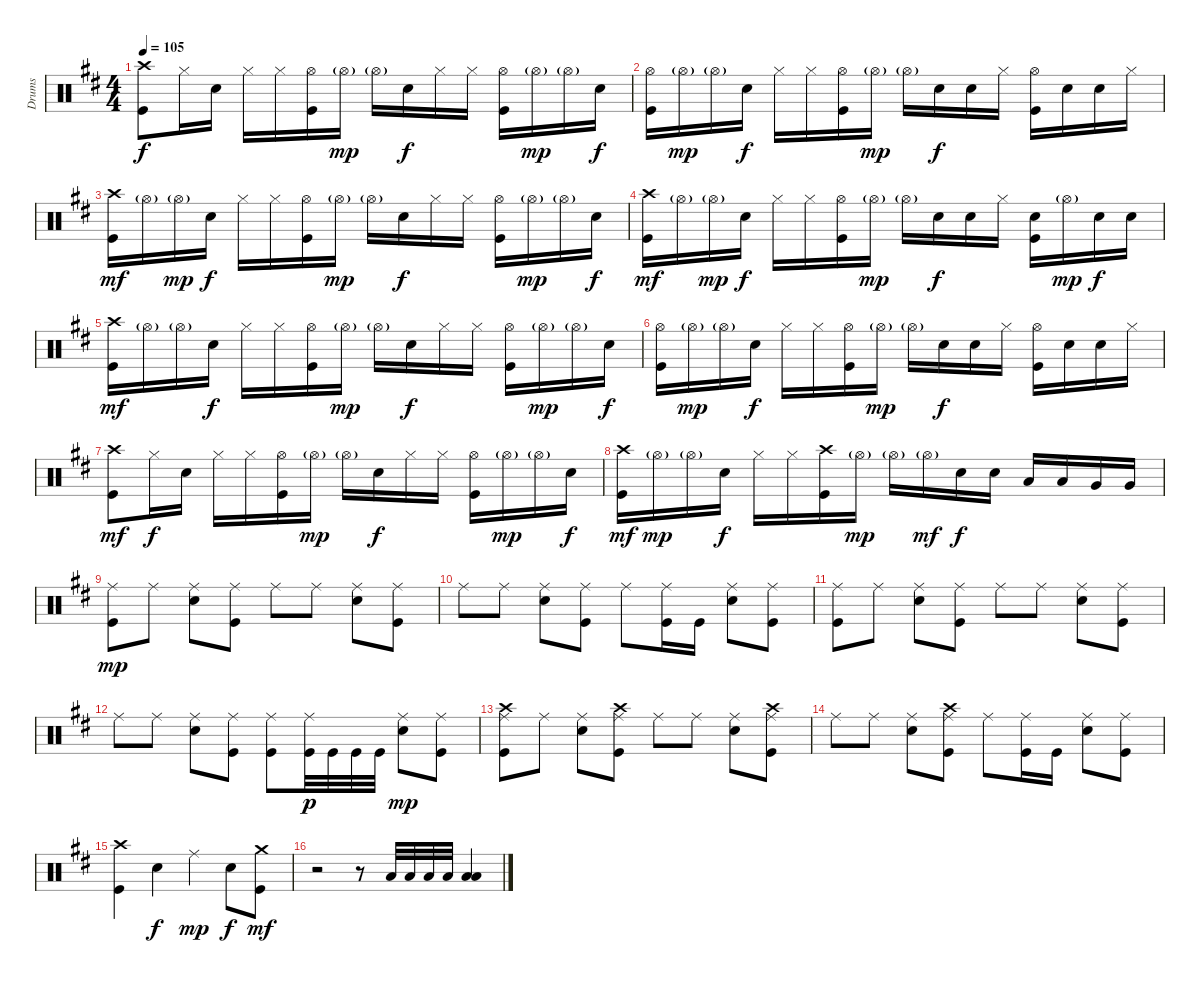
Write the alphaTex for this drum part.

\track ("Drums" "Drums") {instrument percussion}
\staff {score}
\articulation defaults
\ts (4 4)
\tempo 105
\clef neutral
\ks d
("Crash high (hit)" "Kick (hit)").8{dy f} "Hi-Hat (closed)".16 "Electric Snare (hit)".16 "Hi-Hat (closed)".16 "Hi-Hat (closed)".16 ("Hi-Hat (open)" "Kick (hit)").16 "Hi-Hat (open)"{g}.16{dy mp} "Hi-Hat (open)"{g}.16 "Electric Snare (hit)".16{dy f} "Hi-Hat (closed)".16 "Hi-Hat (closed)".16 ("Hi-Hat (open)" "Kick (hit)").16 "Hi-Hat (open)"{g}.16{dy mp} "Hi-Hat (open)"{g}.16 "Electric Snare (hit)".16{dy f} |
("Hi-Hat (open)" "Kick (hit)").16 "Hi-Hat (open)"{g}.16{dy mp} "Hi-Hat (open)"{g}.16 "Electric Snare (hit)".16{dy f} "Hi-Hat (closed)".16 "Hi-Hat (closed)".16 ("Hi-Hat (open)" "Kick (hit)").16 "Hi-Hat (open)"{g}.16{dy mp} "Hi-Hat (open)"{g}.16 "Electric Snare (hit)".16{dy f} "Electric Snare (hit)".16 "Hi-Hat (closed)".16 ("Hi-Hat (open)" "Kick (hit)").16 "Electric Snare (hit)".16 "Electric Snare (hit)".16 "Hi-Hat (closed)".16 |
("Crash high (hit)" "Kick (hit)").16{dy mf} "Hi-Hat (open)"{g}.16 "Hi-Hat (open)"{g}.16{dy mp} "Electric Snare (hit)".16{dy f} "Hi-Hat (closed)".16 "Hi-Hat (closed)".16 ("Hi-Hat (open)" "Kick (hit)").16 "Hi-Hat (open)"{g}.16{dy mp} "Hi-Hat (open)"{g}.16 "Electric Snare (hit)".16{dy f} "Hi-Hat (closed)".16 "Hi-Hat (closed)".16 ("Hi-Hat (open)" "Kick (hit)").16 "Hi-Hat (open)"{g}.16{dy mp} "Hi-Hat (open)"{g}.16 "Electric Snare (hit)".16{dy f} |
("Crash high (hit)" "Kick (hit)").16{dy mf} "Hi-Hat (open)"{g}.16 "Hi-Hat (open)"{g}.16{dy mp} "Electric Snare (hit)".16{dy f} "Hi-Hat (closed)".16 "Hi-Hat (closed)".16 ("Hi-Hat (open)" "Kick (hit)").16 "Hi-Hat (open)"{g}.16{dy mp} "Hi-Hat (open)"{g}.16 "Electric Snare (hit)".16{dy f} "Electric Snare (hit)".16 "Hi-Hat (closed)".16 ("Electric Snare (hit)" "Kick (hit)").16 "Hi-Hat (open)"{g}.16{dy mp} "Electric Snare (hit)".16{dy f} "Electric Snare (hit)".16 |
("Crash high (hit)" "Kick (hit)").16{dy mf} "Hi-Hat (open)"{g}.16 "Hi-Hat (open)"{g}.16 "Electric Snare (hit)".16{dy f} "Hi-Hat (closed)".16 "Hi-Hat (closed)".16 ("Hi-Hat (open)" "Kick (hit)").16 "Hi-Hat (open)"{g}.16{dy mp} "Hi-Hat (open)"{g}.16 "Electric Snare (hit)".16{dy f} "Hi-Hat (closed)".16 "Hi-Hat (closed)".16 ("Hi-Hat (open)" "Kick (hit)").16 "Hi-Hat (open)"{g}.16{dy mp} "Hi-Hat (open)"{g}.16 "Electric Snare (hit)".16{dy f} |
("Hi-Hat (open)" "Kick (hit)").16 "Hi-Hat (open)"{g}.16{dy mp} "Hi-Hat (open)"{g}.16 "Electric Snare (hit)".16{dy f} "Hi-Hat (closed)".16 "Hi-Hat (closed)".16 ("Hi-Hat (open)" "Kick (hit)").16 "Hi-Hat (open)"{g}.16{dy mp} "Hi-Hat (open)"{g}.16 "Electric Snare (hit)".16{dy f} "Electric Snare (hit)".16 "Hi-Hat (closed)".16 ("Hi-Hat (open)" "Kick (hit)").16 "Electric Snare (hit)".16 "Electric Snare (hit)".16 "Hi-Hat (closed)".16 |
("Crash high (hit)" "Kick (hit)").8{dy mf} "Hi-Hat (closed)".16{dy f} "Electric Snare (hit)".16 "Hi-Hat (closed)".16 "Hi-Hat (closed)".16 ("Hi-Hat (open)" "Kick (hit)").16 "Hi-Hat (open)"{g}.16{dy mp} "Hi-Hat (open)"{g}.16 "Electric Snare (hit)".16{dy f} "Hi-Hat (closed)".16 "Hi-Hat (closed)".16 ("Hi-Hat (open)" "Kick (hit)").16 "Hi-Hat (open)"{g}.16{dy mp} "Hi-Hat (open)"{g}.16 "Electric Snare (hit)".16{dy f} |
("Crash high (hit)" "Kick (hit)").16{dy mf} "Hi-Hat (open)"{g}.16{dy mp} "Hi-Hat (open)"{g}.16 "Electric Snare (hit)".16{dy f} "Hi-Hat (closed)".16 "Hi-Hat (closed)".16 ("Crash high (hit)" "Kick (hit)").16 "Hi-Hat (open)"{g}.16{dy mp} "Hi-Hat (open)"{g}.16 "Hi-Hat (open)"{g}.16{dy mf} "Electric Snare (hit)".16{dy f} "Electric Snare (hit)".16 "Low Tom (hit)".16 "Low Tom (hit)".16 "Very Low Tom (hit)".16 "Very Low Tom (hit)".16 |
("Ride (middle)" "Kick (hit)").8{dy mp} "Ride (middle)".8 ("Ride (middle)" "Electric Snare (hit)").8 ("Ride (middle)" "Kick (hit)").8 "Ride (middle)".8 "Ride (middle)".8 ("Ride (middle)" "Electric Snare (hit)").8 ("Ride (middle)" "Kick (hit)").8 |
"Ride (middle)".8 "Ride (middle)".8 ("Ride (middle)" "Electric Snare (hit)").8 ("Ride (middle)" "Kick (hit)").8 "Ride (middle)".8 ("Ride (middle)" "Kick (hit)").16 "Kick (hit)".16 ("Ride (middle)" "Electric Snare (hit)").8 ("Ride (middle)" "Kick (hit)").8 |
("Ride (middle)" "Kick (hit)").8 "Ride (middle)".8 ("Ride (middle)" "Electric Snare (hit)").8 ("Ride (middle)" "Kick (hit)").8 "Ride (middle)".8 "Ride (middle)".8 ("Ride (middle)" "Electric Snare (hit)").8 ("Ride (middle)" "Kick (hit)").8 |
"Ride (middle)".8 "Ride (middle)".8 ("Ride (middle)" "Electric Snare (hit)").8 ("Ride (middle)" "Kick (hit)").8 ("Ride (middle)" "Kick (hit)").8 ("Ride (middle)" "Kick (hit)").32{dy p} "Kick (hit)".32 "Kick (hit)".32 "Kick (hit)".32 ("Ride (middle)" "Electric Snare (hit)").8{dy mp} ("Ride (middle)" "Kick (hit)").8 |
("Ride (middle)" "Crash high (hit)" "Kick (hit)").8 "Ride (middle)".8 ("Ride (middle)" "Electric Snare (hit)").8 ("Ride (middle)" "Crash high (hit)" "Kick (hit)").8 "Ride (middle)".8 "Ride (middle)".8 ("Ride (middle)" "Electric Snare (hit)").8 ("Ride (middle)" "Crash high (hit)" "Kick (hit)").8 |
"Ride (middle)".8 "Ride (middle)".8 ("Ride (middle)" "Electric Snare (hit)").8 ("Ride (middle)" "Crash high (hit)" "Kick (hit)").8 "Ride (middle)".8 ("Ride (middle)" "Kick (hit)").16 "Kick (hit)".16 ("Ride (middle)" "Electric Snare (hit)").8 ("Ride (middle)" "Kick (hit)").8 |
("Crash high (hit)" "Kick (hit)").4 "Electric Snare (hit)".4{dy f} "Ride (middle)".4{dy mp} "Electric Snare (hit)".8{dy f} ("Crash medium (hit)" "Kick (hit)").8{dy mf} |
r.2 r.8 "Low Floor Tom (hit)".32 "Low Floor Tom (hit)".32 "Low Floor Tom (hit)".32 "Low Floor Tom (hit)".32 ("Low Floor Tom (hit)" "Low Floor Tom (hit)").4
